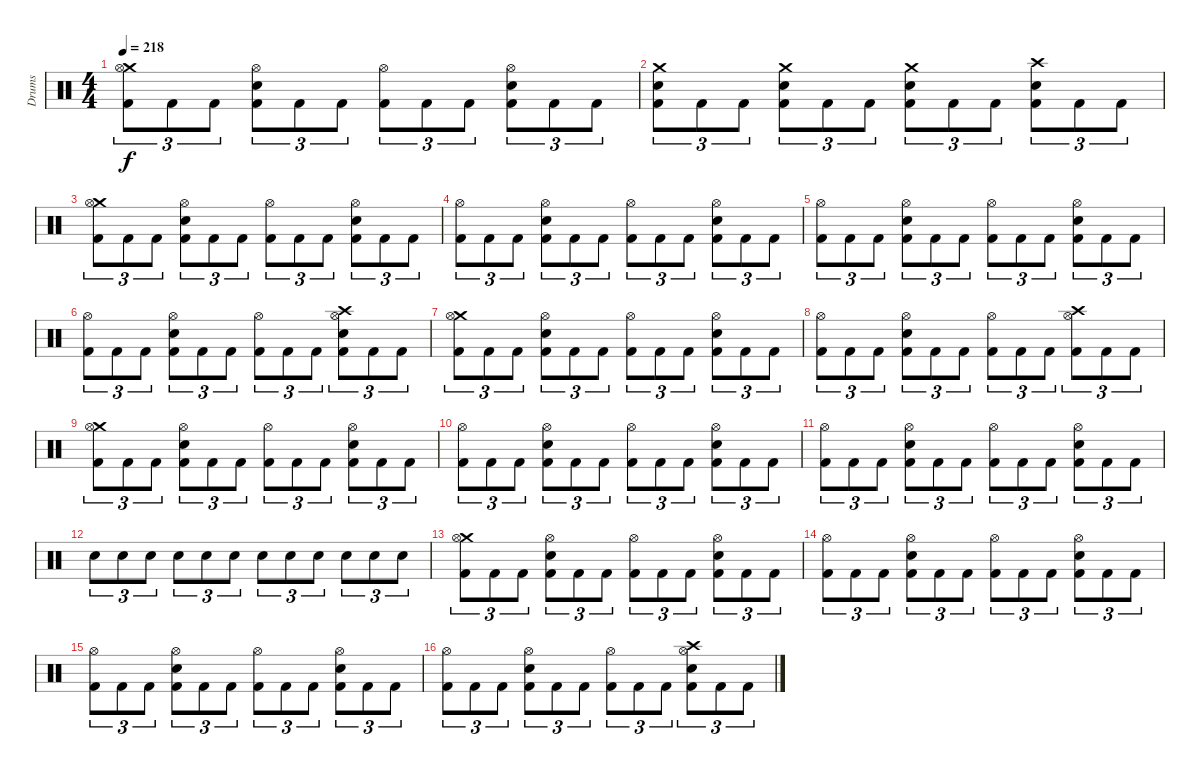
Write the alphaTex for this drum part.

\track ("Drums" "Drums") {instrument percussion}
\staff {score}
\articulation defaults
\ts (4 4)
\tempo 218
\clef neutral
\ks c
("Crash medium (hit)" "Hi-Hat (open)" "Kick (hit) 2").8{tu (3 2) dy f} "Kick (hit) 2".8{tu (3 2)} "Kick (hit) 2".8{tu (3 2)} ("Hi-Hat (open)" "Electric Snare (hit)" "Kick (hit) 2").8{tu (3 2)} "Kick (hit) 2".8{tu (3 2)} "Kick (hit) 2".8{tu (3 2)} ("Hi-Hat (open)" "Kick (hit) 2").8{tu (3 2)} "Kick (hit) 2".8{tu (3 2)} "Kick (hit) 2".8{tu (3 2)} ("Hi-Hat (open)" "Electric Snare (hit)" "Kick (hit) 2").8{tu (3 2)} "Kick (hit) 2".8{tu (3 2)} "Kick (hit) 2".8{tu (3 2)} |
("Crash medium (hit)" "Electric Snare (hit)" "Kick (hit) 2").8{tu (3 2)} "Kick (hit) 2".8{tu (3 2)} "Kick (hit) 2".8{tu (3 2)} ("Crash medium (hit)" "Electric Snare (hit)" "Kick (hit) 2").8{tu (3 2)} "Kick (hit) 2".8{tu (3 2)} "Kick (hit) 2".8{tu (3 2)} ("Crash medium (hit)" "Electric Snare (hit)" "Kick (hit) 2").8{tu (3 2)} "Kick (hit) 2".8{tu (3 2)} "Kick (hit) 2".8{tu (3 2)} ("Crash high (hit)" "Electric Snare (hit)" "Kick (hit) 2").8{tu (3 2)} "Kick (hit) 2".8{tu (3 2)} "Kick (hit) 2".8{tu (3 2)} |
("Crash medium (hit)" "Hi-Hat (open)" "Kick (hit) 2").8{tu (3 2)} "Kick (hit) 2".8{tu (3 2)} "Kick (hit) 2".8{tu (3 2)} ("Hi-Hat (open)" "Electric Snare (hit)" "Kick (hit) 2").8{tu (3 2)} "Kick (hit) 2".8{tu (3 2)} "Kick (hit) 2".8{tu (3 2)} ("Hi-Hat (open)" "Kick (hit) 2").8{tu (3 2)} "Kick (hit) 2".8{tu (3 2)} "Kick (hit) 2".8{tu (3 2)} ("Hi-Hat (open)" "Electric Snare (hit)" "Kick (hit) 2").8{tu (3 2)} "Kick (hit) 2".8{tu (3 2)} "Kick (hit) 2".8{tu (3 2)} |
("Hi-Hat (open)" "Kick (hit) 2").8{tu (3 2)} "Kick (hit) 2".8{tu (3 2)} "Kick (hit) 2".8{tu (3 2)} ("Hi-Hat (open)" "Electric Snare (hit)" "Kick (hit) 2").8{tu (3 2)} "Kick (hit) 2".8{tu (3 2)} "Kick (hit) 2".8{tu (3 2)} ("Hi-Hat (open)" "Kick (hit) 2").8{tu (3 2)} "Kick (hit) 2".8{tu (3 2)} "Kick (hit) 2".8{tu (3 2)} ("Hi-Hat (open)" "Electric Snare (hit)" "Kick (hit) 2").8{tu (3 2)} "Kick (hit) 2".8{tu (3 2)} "Kick (hit) 2".8{tu (3 2)} |
("Hi-Hat (open)" "Kick (hit) 2").8{tu (3 2)} "Kick (hit) 2".8{tu (3 2)} "Kick (hit) 2".8{tu (3 2)} ("Hi-Hat (open)" "Electric Snare (hit)" "Kick (hit) 2").8{tu (3 2)} "Kick (hit) 2".8{tu (3 2)} "Kick (hit) 2".8{tu (3 2)} ("Hi-Hat (open)" "Kick (hit) 2").8{tu (3 2)} "Kick (hit) 2".8{tu (3 2)} "Kick (hit) 2".8{tu (3 2)} ("Hi-Hat (open)" "Electric Snare (hit)" "Kick (hit) 2").8{tu (3 2)} "Kick (hit) 2".8{tu (3 2)} "Kick (hit) 2".8{tu (3 2)} |
("Hi-Hat (open)" "Kick (hit) 2").8{tu (3 2)} "Kick (hit) 2".8{tu (3 2)} "Kick (hit) 2".8{tu (3 2)} ("Hi-Hat (open)" "Electric Snare (hit)" "Kick (hit) 2").8{tu (3 2)} "Kick (hit) 2".8{tu (3 2)} "Kick (hit) 2".8{tu (3 2)} ("Hi-Hat (open)" "Kick (hit) 2").8{tu (3 2)} "Kick (hit) 2".8{tu (3 2)} "Kick (hit) 2".8{tu (3 2)} ("Crash high (hit)" "Hi-Hat (open)" "Electric Snare (hit)" "Kick (hit) 2").8{tu (3 2)} "Kick (hit) 2".8{tu (3 2)} "Kick (hit) 2".8{tu (3 2)} |
("Crash medium (hit)" "Hi-Hat (open)" "Kick (hit) 2").8{tu (3 2)} "Kick (hit) 2".8{tu (3 2)} "Kick (hit) 2".8{tu (3 2)} ("Hi-Hat (open)" "Electric Snare (hit)" "Kick (hit) 2").8{tu (3 2)} "Kick (hit) 2".8{tu (3 2)} "Kick (hit) 2".8{tu (3 2)} ("Hi-Hat (open)" "Kick (hit) 2").8{tu (3 2)} "Kick (hit) 2".8{tu (3 2)} "Kick (hit) 2".8{tu (3 2)} ("Hi-Hat (open)" "Electric Snare (hit)" "Kick (hit) 2").8{tu (3 2)} "Kick (hit) 2".8{tu (3 2)} "Kick (hit) 2".8{tu (3 2)} |
("Hi-Hat (open)" "Kick (hit) 2").8{tu (3 2)} "Kick (hit) 2".8{tu (3 2)} "Kick (hit) 2".8{tu (3 2)} ("Hi-Hat (open)" "Electric Snare (hit)" "Kick (hit) 2").8{tu (3 2)} "Kick (hit) 2".8{tu (3 2)} "Kick (hit) 2".8{tu (3 2)} ("Hi-Hat (open)" "Kick (hit) 2").8{tu (3 2)} "Kick (hit) 2".8{tu (3 2)} "Kick (hit) 2".8{tu (3 2)} ("Crash high (hit)" "Hi-Hat (open)" "Kick (hit) 2").8{tu (3 2)} "Kick (hit) 2".8{tu (3 2)} "Kick (hit) 2".8{tu (3 2)} |
("Crash medium (hit)" "Hi-Hat (open)" "Kick (hit) 2").8{tu (3 2)} "Kick (hit) 2".8{tu (3 2)} "Kick (hit) 2".8{tu (3 2)} ("Hi-Hat (open)" "Electric Snare (hit)" "Kick (hit) 2").8{tu (3 2)} "Kick (hit) 2".8{tu (3 2)} "Kick (hit) 2".8{tu (3 2)} ("Hi-Hat (open)" "Kick (hit) 2").8{tu (3 2)} "Kick (hit) 2".8{tu (3 2)} "Kick (hit) 2".8{tu (3 2)} ("Hi-Hat (open)" "Electric Snare (hit)" "Kick (hit) 2").8{tu (3 2)} "Kick (hit) 2".8{tu (3 2)} "Kick (hit) 2".8{tu (3 2)} |
("Hi-Hat (open)" "Kick (hit) 2").8{tu (3 2)} "Kick (hit) 2".8{tu (3 2)} "Kick (hit) 2".8{tu (3 2)} ("Hi-Hat (open)" "Electric Snare (hit)" "Kick (hit) 2").8{tu (3 2)} "Kick (hit) 2".8{tu (3 2)} "Kick (hit) 2".8{tu (3 2)} ("Hi-Hat (open)" "Kick (hit) 2").8{tu (3 2)} "Kick (hit) 2".8{tu (3 2)} "Kick (hit) 2".8{tu (3 2)} ("Hi-Hat (open)" "Electric Snare (hit)" "Kick (hit) 2").8{tu (3 2)} "Kick (hit) 2".8{tu (3 2)} "Kick (hit) 2".8{tu (3 2)} |
("Hi-Hat (open)" "Kick (hit) 2").8{tu (3 2)} "Kick (hit) 2".8{tu (3 2)} "Kick (hit) 2".8{tu (3 2)} ("Hi-Hat (open)" "Electric Snare (hit)" "Kick (hit) 2").8{tu (3 2)} "Kick (hit) 2".8{tu (3 2)} "Kick (hit) 2".8{tu (3 2)} ("Hi-Hat (open)" "Kick (hit) 2").8{tu (3 2)} "Kick (hit) 2".8{tu (3 2)} "Kick (hit) 2".8{tu (3 2)} ("Hi-Hat (open)" "Electric Snare (hit)" "Kick (hit) 2").8{tu (3 2)} "Kick (hit) 2".8{tu (3 2)} "Kick (hit) 2".8{tu (3 2)} |
"Electric Snare (hit)".8{tu (3 2)} "Electric Snare (hit)".8{tu (3 2)} "Electric Snare (hit)".8{tu (3 2)} "Electric Snare (hit)".8{tu (3 2)} "Electric Snare (hit)".8{tu (3 2)} "Electric Snare (hit)".8{tu (3 2)} "Electric Snare (hit)".8{tu (3 2)} "Electric Snare (hit)".8{tu (3 2)} "Electric Snare (hit)".8{tu (3 2)} "Electric Snare (hit)".8{tu (3 2)} "Electric Snare (hit)".8{tu (3 2)} "Electric Snare (hit)".8{tu (3 2)} |
("Crash medium (hit)" "Hi-Hat (open)" "Kick (hit) 2").8{tu (3 2)} "Kick (hit) 2".8{tu (3 2)} "Kick (hit) 2".8{tu (3 2)} ("Hi-Hat (open)" "Electric Snare (hit)" "Kick (hit) 2").8{tu (3 2)} "Kick (hit) 2".8{tu (3 2)} "Kick (hit) 2".8{tu (3 2)} ("Hi-Hat (open)" "Kick (hit) 2").8{tu (3 2)} "Kick (hit) 2".8{tu (3 2)} "Kick (hit) 2".8{tu (3 2)} ("Hi-Hat (open)" "Electric Snare (hit)" "Kick (hit) 2").8{tu (3 2)} "Kick (hit) 2".8{tu (3 2)} "Kick (hit) 2".8{tu (3 2)} |
("Hi-Hat (open)" "Kick (hit) 2").8{tu (3 2)} "Kick (hit) 2".8{tu (3 2)} "Kick (hit) 2".8{tu (3 2)} ("Hi-Hat (open)" "Electric Snare (hit)" "Kick (hit) 2").8{tu (3 2)} "Kick (hit) 2".8{tu (3 2)} "Kick (hit) 2".8{tu (3 2)} ("Hi-Hat (open)" "Kick (hit) 2").8{tu (3 2)} "Kick (hit) 2".8{tu (3 2)} "Kick (hit) 2".8{tu (3 2)} ("Hi-Hat (open)" "Electric Snare (hit)" "Kick (hit) 2").8{tu (3 2)} "Kick (hit) 2".8{tu (3 2)} "Kick (hit) 2".8{tu (3 2)} |
("Hi-Hat (open)" "Kick (hit) 2").8{tu (3 2)} "Kick (hit) 2".8{tu (3 2)} "Kick (hit) 2".8{tu (3 2)} ("Hi-Hat (open)" "Electric Snare (hit)" "Kick (hit) 2").8{tu (3 2)} "Kick (hit) 2".8{tu (3 2)} "Kick (hit) 2".8{tu (3 2)} ("Hi-Hat (open)" "Kick (hit) 2").8{tu (3 2)} "Kick (hit) 2".8{tu (3 2)} "Kick (hit) 2".8{tu (3 2)} ("Hi-Hat (open)" "Electric Snare (hit)" "Kick (hit) 2").8{tu (3 2)} "Kick (hit) 2".8{tu (3 2)} "Kick (hit) 2".8{tu (3 2)} |
("Hi-Hat (open)" "Kick (hit) 2").8{tu (3 2)} "Kick (hit) 2".8{tu (3 2)} "Kick (hit) 2".8{tu (3 2)} ("Hi-Hat (open)" "Electric Snare (hit)" "Kick (hit) 2").8{tu (3 2)} "Kick (hit) 2".8{tu (3 2)} "Kick (hit) 2".8{tu (3 2)} ("Hi-Hat (open)" "Kick (hit) 2").8{tu (3 2)} "Kick (hit) 2".8{tu (3 2)} "Kick (hit) 2".8{tu (3 2)} ("Crash high (hit)" "Hi-Hat (open)" "Electric Snare (hit)" "Kick (hit) 2").8{tu (3 2)} "Kick (hit) 2".8{tu (3 2)} "Kick (hit) 2".8{tu (3 2)}
